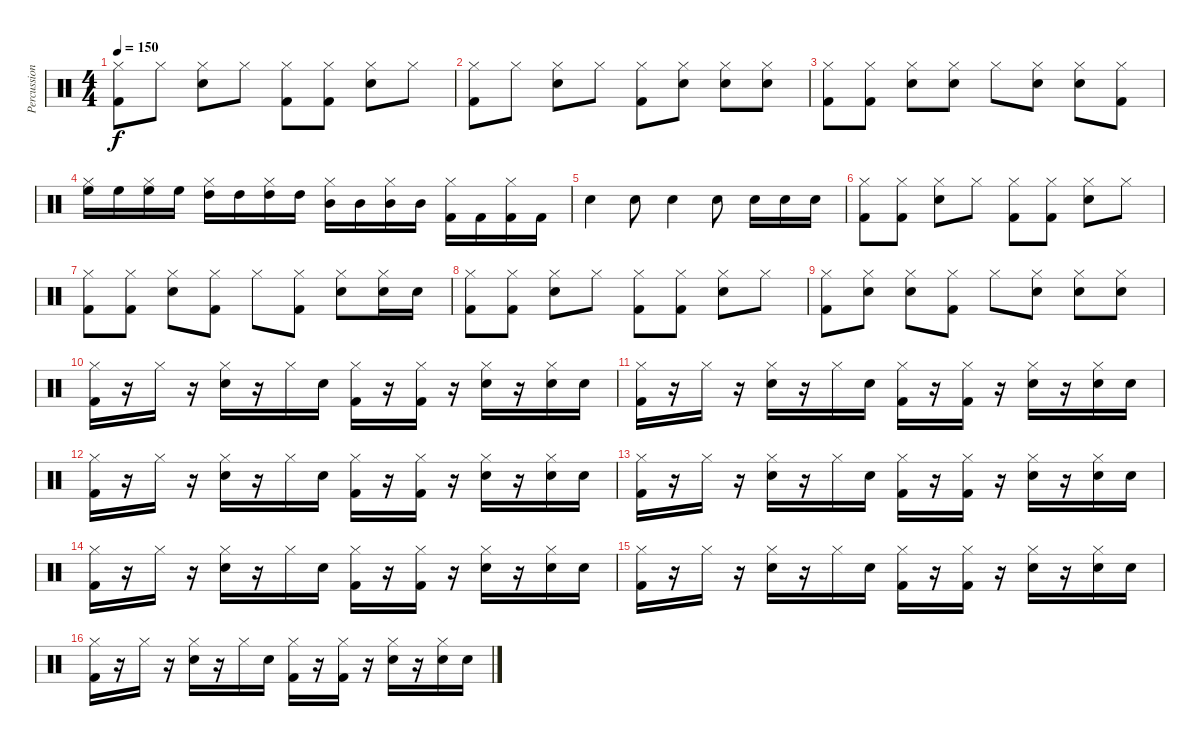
\track ("Percussion" "Percussion") {instrument percussion}
\staff {score}
\articulation defaults
\ts (4 4)
\tempo 150
\clef neutral
\ks c
("Hi-Hat (closed)" "Kick (hit) 2").8{dy f} "Hi-Hat (closed)".8 ("Hi-Hat (closed)" "Electric Snare (hit)").8 "Hi-Hat (closed)".8 ("Hi-Hat (closed)" "Kick (hit) 2").8 ("Hi-Hat (closed)" "Kick (hit) 2").8 ("Hi-Hat (closed)" "Electric Snare (hit)").8 "Hi-Hat (closed)".8 |
("Hi-Hat (closed)" "Kick (hit) 2").8 "Hi-Hat (closed)".8 ("Hi-Hat (closed)" "Electric Snare (hit)").8 "Hi-Hat (closed)".8 ("Hi-Hat (closed)" "Kick (hit) 2").8 ("Hi-Hat (closed)" "Electric Snare (hit)").8 ("Hi-Hat (closed)" "Electric Snare (hit)").8 ("Hi-Hat (closed)" "Electric Snare (hit)").8 |
("Hi-Hat (closed)" "Kick (hit) 2").8 ("Hi-Hat (closed)" "Kick (hit) 2").8 ("Hi-Hat (closed)" "Electric Snare (hit)").8 ("Hi-Hat (closed)" "Electric Snare (hit)").8 "Hi-Hat (closed)".8 ("Hi-Hat (closed)" "Electric Snare (hit)").8 ("Hi-Hat (closed)" "Electric Snare (hit)").8 ("Hi-Hat (closed)" "Kick (hit) 2").8 |
("Hi-Hat (closed)" "High Floor Tom (hit)").16 "High Floor Tom (hit)".16 ("Hi-Hat (closed)" "High Floor Tom (hit)").16 "High Floor Tom (hit)".16 ("Hi-Hat (closed)" "High Tom (hit)").16 "High Tom (hit)".16 ("Hi-Hat (closed)" "High Tom (hit)").16 "High Tom (hit)".16 ("Hi-Hat (closed)" "Mid Tom (hit)").16 "Mid Tom (hit)".16 ("Hi-Hat (closed)" "Mid Tom (hit)").16 "Mid Tom (hit)".16 ("Hi-Hat (closed)" "Kick (hit) 2").16 "Kick (hit) 2".16 ("Hi-Hat (closed)" "Kick (hit) 2").16 "Kick (hit) 2".16 |
"Electric Snare (hit)".4 "Electric Snare (hit)".8 "Electric Snare (hit)".4 "Electric Snare (hit)".8 "Electric Snare (hit)".16 "Electric Snare (hit)".16 "Electric Snare (hit)".16 |
("Hi-Hat (closed)" "Kick (hit) 2").8 ("Hi-Hat (closed)" "Kick (hit) 2").8 ("Hi-Hat (closed)" "Electric Snare (hit)").8 "Hi-Hat (closed)".8 ("Hi-Hat (closed)" "Kick (hit) 2").8 ("Hi-Hat (closed)" "Kick (hit) 2").8 ("Hi-Hat (closed)" "Electric Snare (hit)").8 "Hi-Hat (closed)".8 |
("Hi-Hat (closed)" "Kick (hit) 2").8 ("Hi-Hat (closed)" "Kick (hit) 2").8 ("Hi-Hat (closed)" "Electric Snare (hit)").8 ("Hi-Hat (closed)" "Kick (hit) 2").8 "Hi-Hat (closed)".8 ("Hi-Hat (closed)" "Kick (hit) 2").8 ("Hi-Hat (closed)" "Electric Snare (hit)").8 ("Hi-Hat (closed)" "Electric Snare (hit)").16 "Electric Snare (hit)".16 |
("Hi-Hat (closed)" "Kick (hit) 2").8 ("Hi-Hat (closed)" "Kick (hit) 2").8 ("Hi-Hat (closed)" "Electric Snare (hit)").8 "Hi-Hat (closed)".8 ("Hi-Hat (closed)" "Kick (hit) 2").8 ("Hi-Hat (closed)" "Kick (hit) 2").8 ("Hi-Hat (closed)" "Electric Snare (hit)").8 "Hi-Hat (closed)".8 |
("Hi-Hat (closed)" "Kick (hit) 2").8 ("Hi-Hat (closed)" "Electric Snare (hit)").8 ("Hi-Hat (closed)" "Electric Snare (hit)").8 ("Hi-Hat (closed)" "Kick (hit) 2").8 "Hi-Hat (closed)".8 ("Hi-Hat (closed)" "Electric Snare (hit)").8 ("Hi-Hat (closed)" "Electric Snare (hit)").8 ("Hi-Hat (closed)" "Electric Snare (hit)").8 |
("Hi-Hat (closed)" "Kick (hit) 2").16 r.16 "Hi-Hat (closed)".16 r.16 ("Hi-Hat (closed)" "Electric Snare (hit)").16 r.16 "Hi-Hat (closed)".16 "Electric Snare (hit)".16 ("Hi-Hat (closed)" "Kick (hit) 2").16 r.16 ("Hi-Hat (closed)" "Kick (hit) 2").16 r.16 ("Hi-Hat (closed)" "Electric Snare (hit)").16 r.16 ("Hi-Hat (closed)" "Electric Snare (hit)").16 "Electric Snare (hit)".16 |
("Hi-Hat (closed)" "Kick (hit) 2").16 r.16 "Hi-Hat (closed)".16 r.16 ("Hi-Hat (closed)" "Electric Snare (hit)").16 r.16 "Hi-Hat (closed)".16 "Electric Snare (hit)".16 ("Hi-Hat (closed)" "Kick (hit) 2").16 r.16 ("Hi-Hat (closed)" "Kick (hit) 2").16 r.16 ("Hi-Hat (closed)" "Electric Snare (hit)").16 r.16 ("Hi-Hat (closed)" "Electric Snare (hit)").16 "Electric Snare (hit)".16 |
("Hi-Hat (closed)" "Kick (hit) 2").16 r.16 "Hi-Hat (closed)".16 r.16 ("Hi-Hat (closed)" "Electric Snare (hit)").16 r.16 "Hi-Hat (closed)".16 "Electric Snare (hit)".16 ("Hi-Hat (closed)" "Kick (hit) 2").16 r.16 ("Hi-Hat (closed)" "Kick (hit) 2").16 r.16 ("Hi-Hat (closed)" "Electric Snare (hit)").16 r.16 ("Hi-Hat (closed)" "Electric Snare (hit)").16 "Electric Snare (hit)".16 |
("Hi-Hat (closed)" "Kick (hit) 2").16 r.16 "Hi-Hat (closed)".16 r.16 ("Hi-Hat (closed)" "Electric Snare (hit)").16 r.16 "Hi-Hat (closed)".16 "Electric Snare (hit)".16 ("Hi-Hat (closed)" "Kick (hit) 2").16 r.16 ("Hi-Hat (closed)" "Kick (hit) 2").16 r.16 ("Hi-Hat (closed)" "Electric Snare (hit)").16 r.16 ("Hi-Hat (closed)" "Electric Snare (hit)").16 "Electric Snare (hit)".16 |
("Hi-Hat (closed)" "Kick (hit) 2").16 r.16 "Hi-Hat (closed)".16 r.16 ("Hi-Hat (closed)" "Electric Snare (hit)").16 r.16 "Hi-Hat (closed)".16 "Electric Snare (hit)".16 ("Hi-Hat (closed)" "Kick (hit) 2").16 r.16 ("Hi-Hat (closed)" "Kick (hit) 2").16 r.16 ("Hi-Hat (closed)" "Electric Snare (hit)").16 r.16 ("Hi-Hat (closed)" "Electric Snare (hit)").16 "Electric Snare (hit)".16 |
("Hi-Hat (closed)" "Kick (hit) 2").16 r.16 "Hi-Hat (closed)".16 r.16 ("Hi-Hat (closed)" "Electric Snare (hit)").16 r.16 "Hi-Hat (closed)".16 "Electric Snare (hit)".16 ("Hi-Hat (closed)" "Kick (hit) 2").16 r.16 ("Hi-Hat (closed)" "Kick (hit) 2").16 r.16 ("Hi-Hat (closed)" "Electric Snare (hit)").16 r.16 ("Hi-Hat (closed)" "Electric Snare (hit)").16 "Electric Snare (hit)".16 |
("Hi-Hat (closed)" "Kick (hit) 2").16 r.16 "Hi-Hat (closed)".16 r.16 ("Hi-Hat (closed)" "Electric Snare (hit)").16 r.16 "Hi-Hat (closed)".16 "Electric Snare (hit)".16 ("Hi-Hat (closed)" "Kick (hit) 2").16 r.16 ("Hi-Hat (closed)" "Kick (hit) 2").16 r.16 ("Hi-Hat (closed)" "Electric Snare (hit)").16 r.16 ("Hi-Hat (closed)" "Electric Snare (hit)").16 "Electric Snare (hit)".16
